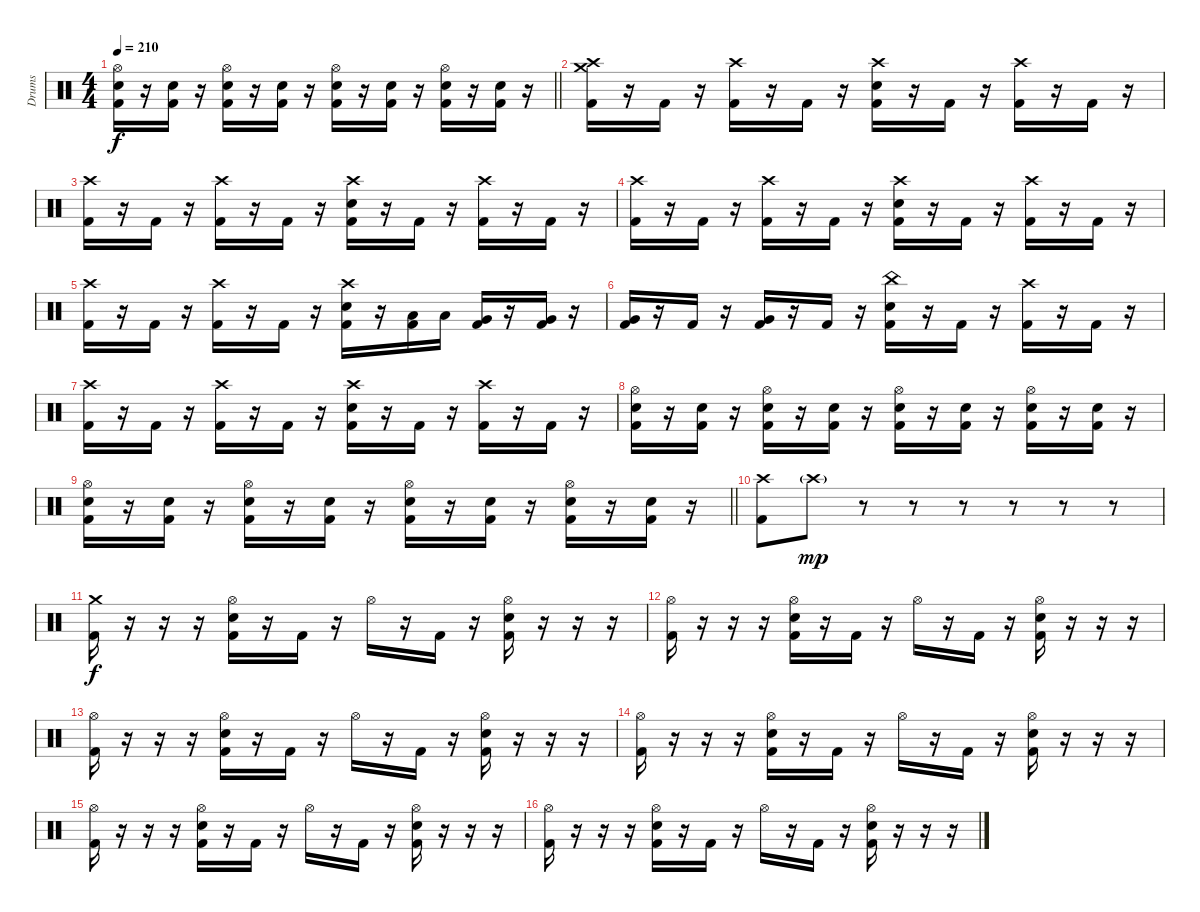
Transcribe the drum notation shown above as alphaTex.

\track ("Drums" "Drums") {instrument percussion}
\staff {score}
\articulation defaults
\ts (4 4)
\tempo 210
\clef neutral
\barLineRight lightlight
\ks c
("Hi-Hat (open)" "Electric Snare (hit)" "Kick (hit) 2").16{dy f} r.16 ("Electric Snare (hit)" "Kick (hit) 2").16 r.16 ("Hi-Hat (open)" "Electric Snare (hit)" "Kick (hit) 2").16 r.16 ("Electric Snare (hit)" "Kick (hit) 2").16 r.16 ("Hi-Hat (open)" "Electric Snare (hit)" "Kick (hit) 2").16 r.16 ("Electric Snare (hit)" "Kick (hit) 2").16 r.16 ("Hi-Hat (open)" "Electric Snare (hit)" "Kick (hit) 2").16 r.16 ("Electric Snare (hit)" "Kick (hit) 2").16 r.16 |
("Crash high (hit)" "Crash medium (hit)" "Kick (hit) 2").16 r.16 "Kick (hit) 2".16 r.16 ("Crash high (hit)" "Kick (hit) 2").16 r.16 "Kick (hit) 2".16 r.16 ("Crash high (hit)" "Electric Snare (hit)" "Kick (hit) 2").16 r.16 "Kick (hit) 2".16 r.16 ("Crash high (hit)" "Kick (hit) 2").16 r.16 "Kick (hit) 2".16 r.16 |
("Crash high (hit)" "Kick (hit) 2").16 r.16 "Kick (hit) 2".16 r.16 ("Crash high (hit)" "Kick (hit) 2").16 r.16 "Kick (hit) 2".16 r.16 ("Crash high (hit)" "Electric Snare (hit)" "Kick (hit) 2").16 r.16 "Kick (hit) 2".16 r.16 ("Crash high (hit)" "Kick (hit) 2").16 r.16 "Kick (hit) 2".16 r.16 |
("Crash high (hit)" "Kick (hit) 2").16 r.16 "Kick (hit) 2".16 r.16 ("Crash high (hit)" "Kick (hit) 2").16 r.16 "Kick (hit) 2".16 r.16 ("Crash high (hit)" "Electric Snare (hit)" "Kick (hit) 2").16 r.16 "Kick (hit) 2".16 r.16 ("Crash high (hit)" "Kick (hit) 2").16 r.16 "Kick (hit) 2".16 r.16 |
("Crash high (hit)" "Kick (hit) 2").16 r.16 "Kick (hit) 2".16 r.16 ("Crash high (hit)" "Kick (hit) 2").16 r.16 "Kick (hit) 2".16 r.16 ("Crash high (hit)" "Electric Snare (hit)" "Kick (hit) 2").16 r.16 ("Low Tom (hit)" "Kick (hit) 2").16 "Low Tom (hit)".16 ("Very Low Tom (hit)" "Kick (hit) 2").16 r.16 ("Very Low Tom (hit)" "Kick (hit) 2").16 r.16 |
("Very Low Tom (hit)" "Kick (hit) 2").16 r.16 "Kick (hit) 2".16 r.16 ("Very Low Tom (hit)" "Kick (hit) 2").16 r.16 "Kick (hit) 2".16 r.16 ("China (hit)" "Electric Snare (hit)" "Kick (hit) 2").16 r.16 "Kick (hit) 2".16 r.16 ("Crash high (hit)" "Kick (hit) 2").16 r.16 "Kick (hit) 2".16 r.16 |
("Crash high (hit)" "Kick (hit) 2").16 r.16 "Kick (hit) 2".16 r.16 ("Crash high (hit)" "Kick (hit) 2").16 r.16 "Kick (hit) 2".16 r.16 ("Crash high (hit)" "Electric Snare (hit)" "Kick (hit) 2").16 r.16 "Kick (hit) 2".16 r.16 ("Crash high (hit)" "Kick (hit) 2").16 r.16 "Kick (hit) 2".16 r.16 |
("Hi-Hat (open)" "Electric Snare (hit)" "Kick (hit) 2").16 r.16 ("Electric Snare (hit)" "Kick (hit) 2").16 r.16 ("Hi-Hat (open)" "Electric Snare (hit)" "Kick (hit) 2").16 r.16 ("Electric Snare (hit)" "Kick (hit) 2").16 r.16 ("Hi-Hat (open)" "Electric Snare (hit)" "Kick (hit) 2").16 r.16 ("Electric Snare (hit)" "Kick (hit) 2").16 r.16 ("Hi-Hat (open)" "Electric Snare (hit)" "Kick (hit) 2").16 r.16 ("Electric Snare (hit)" "Kick (hit) 2").16 r.16 |
\barLineRight lightlight
("Hi-Hat (open)" "Electric Snare (hit)" "Kick (hit) 2").16 r.16 ("Electric Snare (hit)" "Kick (hit) 2").16 r.16 ("Hi-Hat (open)" "Electric Snare (hit)" "Kick (hit) 2").16 r.16 ("Electric Snare (hit)" "Kick (hit) 2").16 r.16 ("Hi-Hat (open)" "Electric Snare (hit)" "Kick (hit) 2").16 r.16 ("Electric Snare (hit)" "Kick (hit) 2").16 r.16 ("Hi-Hat (open)" "Electric Snare (hit)" "Kick (hit) 2").16 r.16 ("Electric Snare (hit)" "Kick (hit) 2").16 r.16 |
("Crash high (hit)" "Kick (hit) 2").8 "Crash high (hit)"{g}.8{dy mp volume 0} r.8 r.8 r.8 r.8 r.8 r.8 |
("Crash medium (hit)" "Kick (hit) 2").16{dy f volume 16} r.16 r.16 r.16 ("Hi-Hat (open)" "Electric Snare (hit)" "Kick (hit) 2").16 r.16 "Kick (hit) 2".16 r.16 "Hi-Hat (open)".16 r.16 "Kick (hit) 2".16 r.16 ("Hi-Hat (open)" "Electric Snare (hit)" "Kick (hit) 2").16 r.16 r.16 r.16 |
("Hi-Hat (open)" "Kick (hit) 2").16 r.16 r.16 r.16 ("Hi-Hat (open)" "Electric Snare (hit)" "Kick (hit) 2").16 r.16 "Kick (hit) 2".16 r.16 "Hi-Hat (open)".16 r.16 "Kick (hit) 2".16 r.16 ("Hi-Hat (open)" "Electric Snare (hit)" "Kick (hit) 2").16 r.16 r.16 r.16 |
("Hi-Hat (open)" "Kick (hit) 2").16 r.16 r.16 r.16 ("Hi-Hat (open)" "Electric Snare (hit)" "Kick (hit) 2").16 r.16 "Kick (hit) 2".16 r.16 "Hi-Hat (open)".16 r.16 "Kick (hit) 2".16 r.16 ("Hi-Hat (open)" "Electric Snare (hit)" "Kick (hit) 2").16 r.16 r.16 r.16 |
("Hi-Hat (open)" "Kick (hit) 2").16 r.16 r.16 r.16 ("Hi-Hat (open)" "Electric Snare (hit)" "Kick (hit) 2").16 r.16 "Kick (hit) 2".16 r.16 "Hi-Hat (open)".16 r.16 "Kick (hit) 2".16 r.16 ("Hi-Hat (open)" "Electric Snare (hit)" "Kick (hit) 2").16 r.16 r.16 r.16 |
("Hi-Hat (open)" "Kick (hit) 2").16 r.16 r.16 r.16 ("Hi-Hat (open)" "Electric Snare (hit)" "Kick (hit) 2").16 r.16 "Kick (hit) 2".16 r.16 "Hi-Hat (open)".16 r.16 "Kick (hit) 2".16 r.16 ("Hi-Hat (open)" "Electric Snare (hit)" "Kick (hit) 2").16 r.16 r.16 r.16 |
("Hi-Hat (open)" "Kick (hit) 2").16 r.16 r.16 r.16 ("Hi-Hat (open)" "Electric Snare (hit)" "Kick (hit) 2").16 r.16 "Kick (hit) 2".16 r.16 "Hi-Hat (open)".16 r.16 "Kick (hit) 2".16 r.16 ("Hi-Hat (open)" "Electric Snare (hit)" "Kick (hit) 2").16 r.16 r.16 r.16
